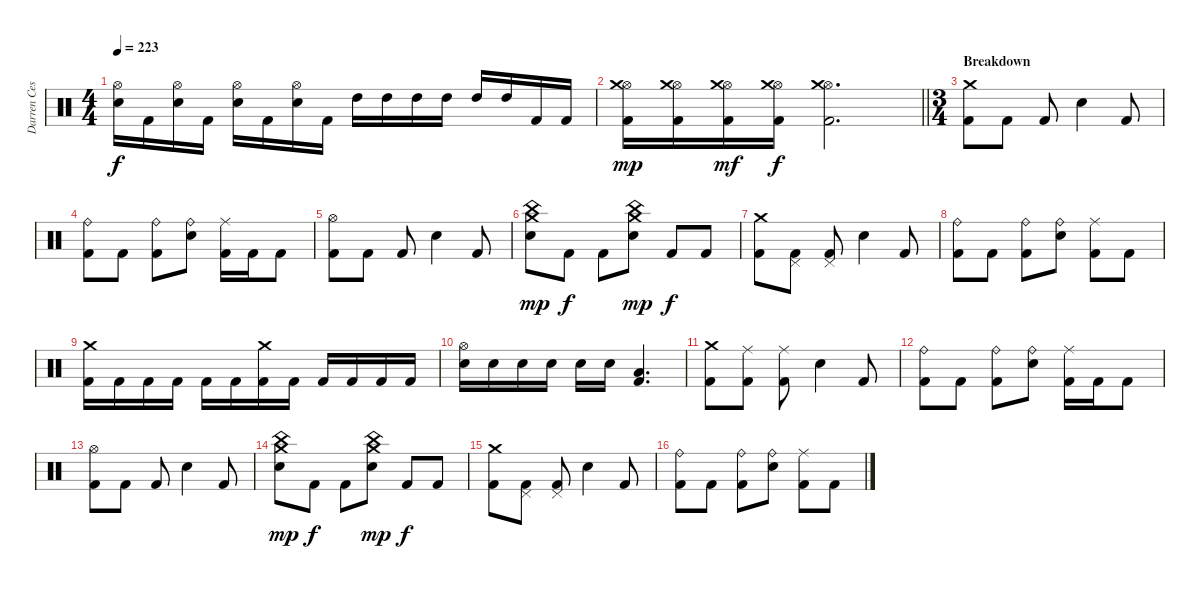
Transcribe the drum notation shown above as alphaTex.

\track ("Darren Cesca" "Darren Ces") {instrument percussion}
\staff {score}
\articulation defaults
\ts (4 4)
\tempo 223
\clef neutral
\ks c
("Hi-Hat (open)" "Electric Snare (hit)").16{dy f} "Kick (hit) 2".16 ("Hi-Hat (open)" "Electric Snare (hit)").16 "Kick (hit) 2".16 ("Hi-Hat (open)" "Electric Snare (hit)").16 "Kick (hit) 2".16 ("Hi-Hat (open)" "Electric Snare (hit)").16 "Kick (hit) 2".16 "High Tom (hit)".16 "High Tom (hit)".16 "High Tom (hit)".16 "High Tom (hit)".16 "High Tom (hit)".16 "High Tom (hit)".16 "Kick (hit) 2".16 "Kick (hit) 2".16 |
\barLineRight lightlight
("Hi-Hat (open)" "Crash medium (hit)" "Kick (hit) 2").16{dy mp} ("Hi-Hat (open)" "Crash medium (hit)" "Kick (hit) 2").16 ("Hi-Hat (open)" "Crash medium (hit)" "Kick (hit) 2").16{dy mf} ("Hi-Hat (open)" "Crash medium (hit)" "Kick (hit) 2").16{dy f} ("Hi-Hat (open)" "Crash medium (hit)" "Kick (hit) 2").2{d} |
\ts (3 4)
\section ("" "Breakdown")
("Crash medium (hit)" "Kick (hit) 2").8 "Kick (hit) 2".8 "Kick (hit) 2".8 "Electric Snare (hit)".4 "Kick (hit) 2".8 |
("Ride (bell)" "Kick (hit) 2").8 "Kick (hit) 2".8 ("Ride (bell)" "Kick (hit) 2").8 ("Ride (bell)" "Electric Snare (hit)").8 ("Ride (middle)" "Kick (hit) 2").16 "Kick (hit) 2".16 "Kick (hit) 2".8 |
("Hi-Hat (open)" "Kick (hit) 2").8 "Kick (hit) 2".8 "Kick (hit) 2".8 "Electric Snare (hit)".4 "Kick (hit) 2".8 |
("China (hit)" "Crash medium (hit)" "Electric Snare (hit)").8{dy mp} "Kick (hit) 2".8{dy f} "Kick (hit) 2".8 ("China (hit)" "Crash medium (hit)" "Electric Snare (hit)").8{dy mp} "Kick (hit) 2".8{dy f} "Kick (hit) 2".8 |
("Crash medium (hit)" "Kick (hit) 2").8 ("Pedal Hi-Hat (hit)" "Kick (hit) 2").8 ("Pedal Hi-Hat (hit)" "Kick (hit) 2").8 "Electric Snare (hit)".4 "Kick (hit) 2".8 |
("Ride (bell)" "Kick (hit) 2").8 "Kick (hit) 2".8 ("Ride (bell)" "Kick (hit) 2").8 ("Ride (bell)" "Electric Snare (hit)").8 ("Ride (middle)" "Kick (hit) 2").8 "Kick (hit) 2".8 |
("Crash medium (hit)" "Kick (hit) 2").16 "Kick (hit) 2".16 "Kick (hit) 2".16 "Kick (hit) 2".16 "Kick (hit) 2".16 "Kick (hit) 2".16 ("Crash medium (hit)" "Kick (hit) 2").16 "Kick (hit) 2".16 "Kick (hit) 2".16 "Kick (hit) 2".16 "Kick (hit) 2".16 "Kick (hit) 2".16 |
("Hi-Hat (open)" "Electric Snare (hit)").16 "Electric Snare (hit)".16 "Electric Snare (hit)".16 "Electric Snare (hit)".16 "Electric Snare (hit)".16 "Electric Snare (hit)".16 ("Low Tom (hit)" "Kick (hit) 2").4{d} |
("Crash medium (hit)" "Kick (hit) 2").8 ("Ride (middle)" "Kick (hit) 2").8 ("Ride (middle)" "Kick (hit) 2").8 "Electric Snare (hit)".4 "Kick (hit) 2".8 |
("Ride (bell)" "Kick (hit) 2").8 "Kick (hit) 2".8 ("Ride (bell)" "Kick (hit) 2").8 ("Ride (bell)" "Electric Snare (hit)").8 ("Ride (middle)" "Kick (hit) 2").16 "Kick (hit) 2".16 "Kick (hit) 2".8 |
("Hi-Hat (open)" "Kick (hit) 2").8 "Kick (hit) 2".8 "Kick (hit) 2".8 "Electric Snare (hit)".4 "Kick (hit) 2".8 |
("China (hit)" "Crash medium (hit)" "Electric Snare (hit)").8{dy mp} "Kick (hit) 2".8{dy f} "Kick (hit) 2".8 ("China (hit)" "Crash medium (hit)" "Electric Snare (hit)").8{dy mp} "Kick (hit) 2".8{dy f} "Kick (hit) 2".8 |
("Crash medium (hit)" "Kick (hit) 2").8 ("Pedal Hi-Hat (hit)" "Kick (hit) 2").8 ("Pedal Hi-Hat (hit)" "Kick (hit) 2").8 "Electric Snare (hit)".4 "Kick (hit) 2".8 |
("Ride (bell)" "Kick (hit) 2").8 "Kick (hit) 2".8 ("Ride (bell)" "Kick (hit) 2").8 ("Ride (bell)" "Electric Snare (hit)").8 ("Ride (middle)" "Kick (hit) 2").8 "Kick (hit) 2".8
